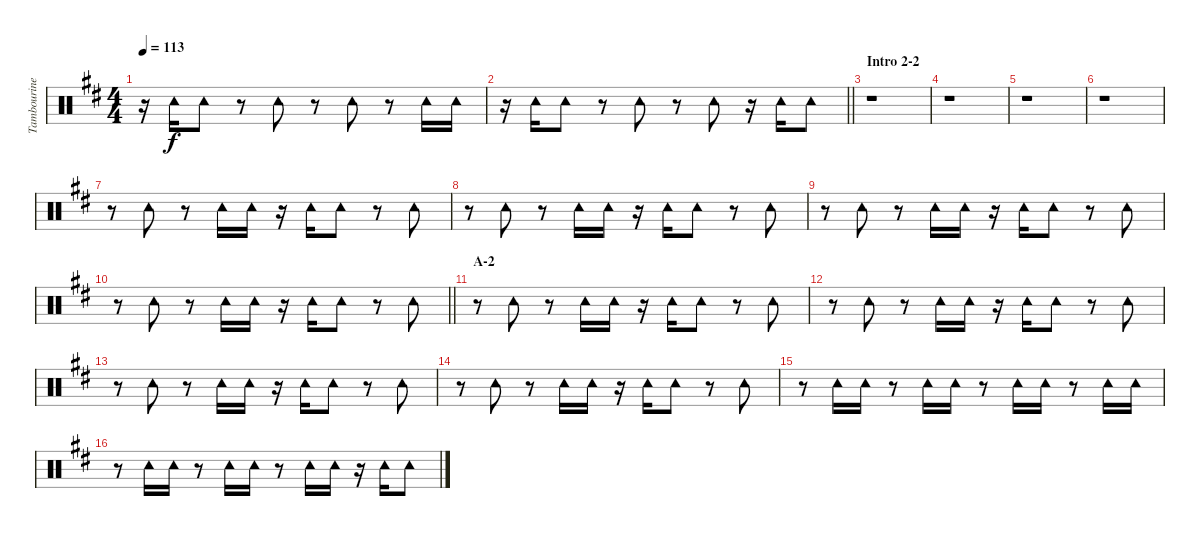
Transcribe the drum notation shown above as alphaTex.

\track ("Tambourine" "Tambourine") {instrument percussion}
\staff {score}
\articulation defaults
\ts (4 4)
\tempo 113
\clef neutral
\ks d
r.16{dy f} "Tambourine (hit)".16 "Tambourine (hit)".8 r.8 "Tambourine (hit)".8 r.8 "Tambourine (hit)".8 r.8 "Tambourine (hit)".16 "Tambourine (hit)".16 |
\barLineRight lightlight
r.16 "Tambourine (hit)".16 "Tambourine (hit)".8 r.8 "Tambourine (hit)".8 r.8 "Tambourine (hit)".8 r.16 "Tambourine (hit)".16 "Tambourine (hit)".8 |
\section ("" "Intro 2-2")
r.1 |
r.1 |
r.1 |
r.1 |
r.8 "Tambourine (hit)".8 r.8 "Tambourine (hit)".16 "Tambourine (hit)".16 r.16 "Tambourine (hit)".16 "Tambourine (hit)".8 r.8 "Tambourine (hit)".8 |
r.8 "Tambourine (hit)".8 r.8 "Tambourine (hit)".16 "Tambourine (hit)".16 r.16 "Tambourine (hit)".16 "Tambourine (hit)".8 r.8 "Tambourine (hit)".8 |
r.8 "Tambourine (hit)".8 r.8 "Tambourine (hit)".16 "Tambourine (hit)".16 r.16 "Tambourine (hit)".16 "Tambourine (hit)".8 r.8 "Tambourine (hit)".8 |
\barLineRight lightlight
r.8 "Tambourine (hit)".8 r.8 "Tambourine (hit)".16 "Tambourine (hit)".16 r.16 "Tambourine (hit)".16 "Tambourine (hit)".8 r.8 "Tambourine (hit)".8 |
\section ("" "A-2")
r.8 "Tambourine (hit)".8 r.8 "Tambourine (hit)".16 "Tambourine (hit)".16 r.16 "Tambourine (hit)".16 "Tambourine (hit)".8 r.8 "Tambourine (hit)".8 |
r.8 "Tambourine (hit)".8 r.8 "Tambourine (hit)".16 "Tambourine (hit)".16 r.16 "Tambourine (hit)".16 "Tambourine (hit)".8 r.8 "Tambourine (hit)".8 |
r.8 "Tambourine (hit)".8 r.8 "Tambourine (hit)".16 "Tambourine (hit)".16 r.16 "Tambourine (hit)".16 "Tambourine (hit)".8 r.8 "Tambourine (hit)".8 |
r.8 "Tambourine (hit)".8 r.8 "Tambourine (hit)".16 "Tambourine (hit)".16 r.16 "Tambourine (hit)".16 "Tambourine (hit)".8 r.8 "Tambourine (hit)".8 |
r.8 "Tambourine (hit)".16 "Tambourine (hit)".16 r.8 "Tambourine (hit)".16 "Tambourine (hit)".16 r.8 "Tambourine (hit)".16 "Tambourine (hit)".16 r.8 "Tambourine (hit)".16 "Tambourine (hit)".16 |
r.8 "Tambourine (hit)".16 "Tambourine (hit)".16 r.8 "Tambourine (hit)".16 "Tambourine (hit)".16 r.8 "Tambourine (hit)".16 "Tambourine (hit)".16 r.16 "Tambourine (hit)".16 "Tambourine (hit)".8
